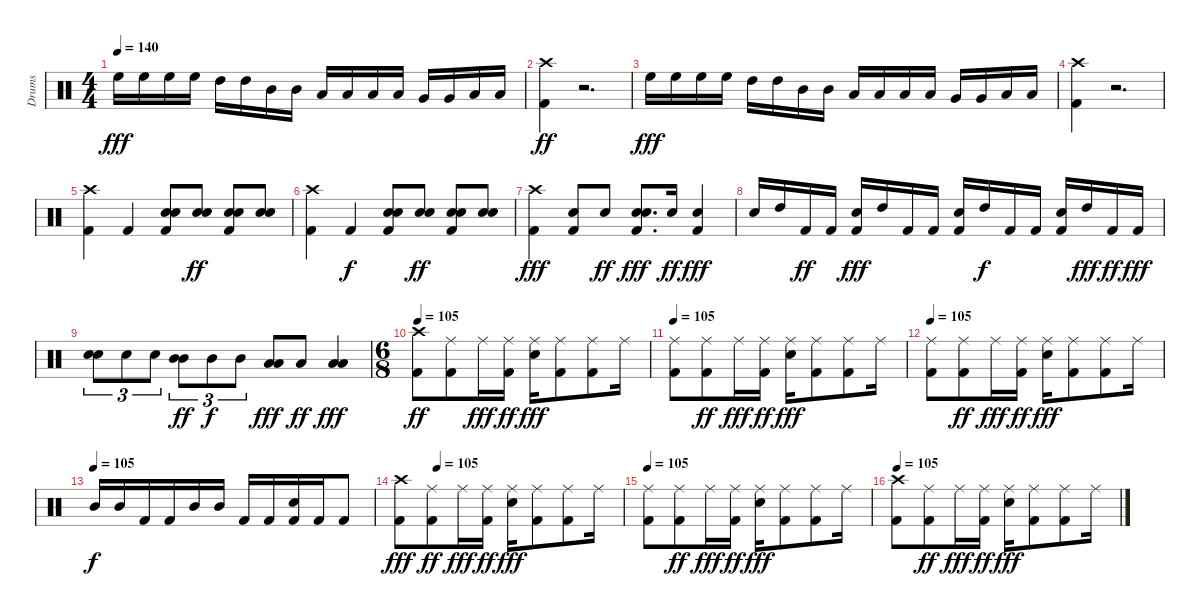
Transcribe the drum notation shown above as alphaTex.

\track ("Drums" "Drums") {instrument percussion}
\staff {score}
\articulation defaults
\ts (4 4)
\tempo 140
\clef neutral
\ks c "High Floor Tom (hit)".16{dy fff} "High Floor Tom (hit)".16 "High Floor Tom (hit)".16 "High Floor Tom (hit)".16 "High Tom (hit)".16 "High Tom (hit)".16 "Mid Tom (hit)".16 "Mid Tom (hit)".16 "Low Tom (hit)".16 "Low Tom (hit)".16 "Low Tom (hit)".16 "Low Tom (hit)".16 "Very Low Tom (hit)".16 "Very Low Tom (hit)".16 "Low Floor Tom (hit)".16 "Low Floor Tom (hit)".16
|
("Kick (hit) 2" "Crash high (hit)").4{dy ff} r.2{d} |
"High Floor Tom (hit)".16{dy fff} "High Floor Tom (hit)".16 "High Floor Tom (hit)".16 "High Floor Tom (hit)".16 "High Tom (hit)".16 "High Tom (hit)".16 "Mid Tom (hit)".16 "Mid Tom (hit)".16 "Low Tom (hit)".16 "Low Tom (hit)".16 "Low Tom (hit)".16 "Low Tom (hit)".16 "Very Low Tom (hit)".16 "Very Low Tom (hit)".16 "Low Floor Tom (hit)".16 "Low Floor Tom (hit)".16 |
("Kick (hit) 2" "Crash high (hit)").4 r.2{d} |
("Kick (hit) 2" "Crash high (hit)").4 "Kick (hit) 2".4 ("Snare (hit) 2" "Electric Snare (hit)" "Kick (hit) 2").8 ("Snare (hit) 2" "Electric Snare (hit)").8{dy ff} ("Kick (hit) 2" "Electric Snare (hit)" "Snare (hit) 2").8 ("Snare (hit) 2" "Electric Snare (hit)").8 |
("Kick (hit) 2" "Crash high (hit)").4 "Kick (hit) 2".4{dy f} ("Snare (hit) 2" "Electric Snare (hit)" "Kick (hit) 2").8 ("Snare (hit) 2" "Electric Snare (hit)").8{dy ff} ("Electric Snare (hit)" "Snare (hit) 2" "Kick (hit) 2").8 ("Snare (hit) 2" "Electric Snare (hit)").8 |
("Kick (hit) 2" "Crash high (hit)").4{dy fff} ("Electric Snare (hit)" "Kick (hit) 2").8 "Electric Snare (hit)".8{dy ff} ("Snare (hit) 2" "Electric Snare (hit)" "Kick (hit) 2").8{d dy fff} "Snare (hit) 2".16{dy ff} ("Electric Snare (hit)" "Kick (hit) 2").4{dy fff} |
"Electric Snare (hit)".16 "High Tom (hit)".16 "Kick (hit) 2".16{dy ff} "Kick (hit) 2".16 ("Electric Snare (hit)" "Kick (hit) 2").16{dy fff} "High Tom (hit)".16 "Kick (hit) 2".16 "Kick (hit) 2".16 ("Electric Snare (hit)" "Kick (hit) 2").16 "High Tom (hit)".16{dy f} "Kick (hit) 2".16 "Kick (hit) 2".16 ("Electric Snare (hit)" "Kick (hit) 2").16 "High Tom (hit)".16{dy fff} "Kick (hit) 2".16{dy ff} "Kick (hit) 2".16{dy fff} |
("Snare (hit) 2" "Electric Snare (hit)").8{tu (3 2)} "Electric Snare (hit)".8{tu (3 2)} "Electric Snare (hit)".8{tu (3 2)} ("Mid Tom (hit)" "Mid Tom (hit)").8{tu (3 2) dy ff} "Mid Tom (hit)".8{tu (3 2) dy f} "Mid Tom (hit)".8{tu (3 2)} ("Low Tom (hit)" "Low Tom (hit)").8{dy fff} "Low Tom (hit)".8{dy ff} ("Low Floor Tom (hit)" "Low Floor Tom (hit)").4{dy fff} |
\ts (6 8)
\tempo 105
("Kick (hit) 2" "Crash high (hit)").8{dy ff} ("Ride (middle)" "Kick (hit) 2").8 "Ride (middle)".16{dy fff} ("Ride (middle)" "Kick (hit) 2").16{dy ff} ("Ride (middle)" "Electric Snare (hit)").16{dy fff} ("Ride (middle)" "Kick (hit) 2").8 ("Ride (middle)" "Kick (hit) 2").8 "Ride (middle)".16 |
\tempo 105
("Ride (middle)" "Kick (hit) 2").8 ("Ride (middle)" "Kick (hit) 2").8{dy ff} "Ride (middle)".16{dy fff} ("Ride (middle)" "Kick (hit) 2").16{dy ff} ("Ride (middle)" "Electric Snare (hit)").16{dy fff} ("Ride (middle)" "Kick (hit) 2").8 ("Ride (middle)" "Kick (hit) 2").8 "Ride (middle)".16 |
\tempo 105
("Ride (middle)" "Kick (hit) 2").8 ("Ride (middle)" "Kick (hit) 2").8{dy ff} "Ride (middle)".16{dy fff} ("Ride (middle)" "Kick (hit) 2").16{dy ff} ("Ride (middle)" "Electric Snare (hit)").16{dy fff} ("Ride (middle)" "Kick (hit) 2").8 ("Ride (middle)" "Kick (hit) 2").8 "Ride (middle)".16 |
\tempo (105)
"Mid Tom (hit)".16{dy f} "Mid Tom (hit)".16 "Kick (hit) 2".16 "Kick (hit) 2".16 "Mid Tom (hit)".16 "Mid Tom (hit)".16 "Kick (hit) 2".16 "Kick (hit) 2".16 ("Electric Snare (hit)" "Kick (hit) 2").16 "Kick (hit) 2".16 "Kick (hit) 2".8 |
\tempo (105 0.16666666666666666)
("Kick (hit) 2" "Crash high (hit)").8{dy fff} ("Ride (middle)" "Kick (hit) 2").8{dy ff} "Ride (middle)".16{dy fff} ("Ride (middle)" "Kick (hit) 2").16{dy ff} ("Ride (middle)" "Electric Snare (hit)").16{dy fff} ("Ride (middle)" "Kick (hit) 2").8 ("Ride (middle)" "Kick (hit) 2").8 "Ride (middle)".16 |
\tempo 105
("Ride (middle)" "Kick (hit) 2").8 ("Ride (middle)" "Kick (hit) 2").8{dy ff} "Ride (middle)".16{dy fff} ("Ride (middle)" "Kick (hit) 2").16{dy ff} ("Ride (middle)" "Electric Snare (hit)").16{dy fff} ("Ride (middle)" "Kick (hit) 2").8 ("Ride (middle)" "Kick (hit) 2").8 "Ride (middle)".16 |
\tempo 105
("Kick (hit) 2" "Crash high (hit)").8 ("Ride (middle)" "Kick (hit) 2").8{dy ff} "Ride (middle)".16{dy fff} ("Ride (middle)" "Kick (hit) 2").16{dy ff} ("Ride (middle)" "Electric Snare (hit)").16{dy fff} ("Ride (middle)" "Kick (hit) 2").8 ("Ride (middle)" "Kick (hit) 2").8 "Ride (middle)".16
